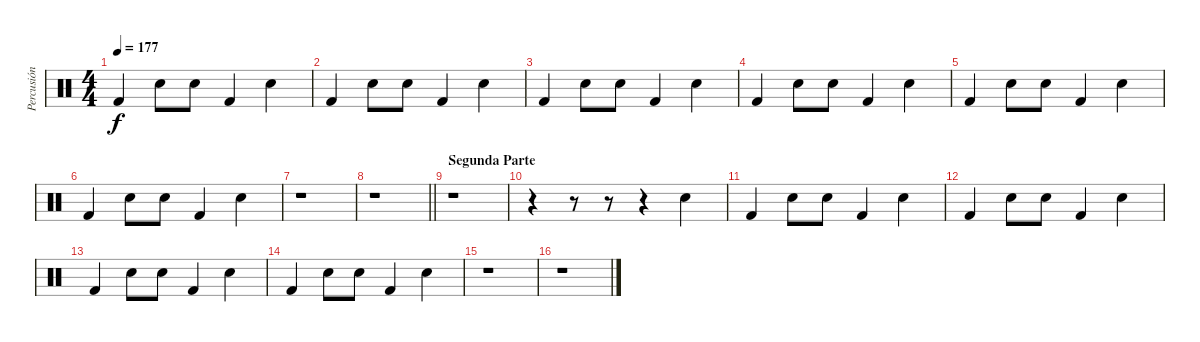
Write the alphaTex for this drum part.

\track ("Percusión" "Percusión") {instrument percussion}
\staff {score}
\articulation defaults
\ts (4 4)
\tempo 177
\clef neutral
\ks c "Kick (hit) 2".4{dy f balance 8} "Electric Snare (hit)".8 "Electric Snare (hit)".8 "Kick (hit) 2".4 "Electric Snare (hit)".4
|
"Kick (hit) 2".4 "Electric Snare (hit)".8 "Electric Snare (hit)".8 "Kick (hit) 2".4 "Electric Snare (hit)".4 |
"Kick (hit) 2".4 "Electric Snare (hit)".8 "Electric Snare (hit)".8 "Kick (hit) 2".4 "Electric Snare (hit)".4 |
"Kick (hit) 2".4 "Electric Snare (hit)".8 "Electric Snare (hit)".8 "Kick (hit) 2".4 "Electric Snare (hit)".4 |
"Kick (hit) 2".4 "Electric Snare (hit)".8 "Electric Snare (hit)".8 "Kick (hit) 2".4 "Electric Snare (hit)".4 |
"Kick (hit) 2".4 "Electric Snare (hit)".8 "Electric Snare (hit)".8 "Kick (hit) 2".4 "Electric Snare (hit)".4 |
r.1 |
\barLineRight lightlight
r.1 |
\section ("" "Segunda Parte")
r.1 |
r.4 r.8 r.8 r.4 "Electric Snare (hit)".4 |
"Kick (hit) 2".4 "Electric Snare (hit)".8 "Electric Snare (hit)".8 "Kick (hit) 2".4 "Electric Snare (hit)".4 |
"Kick (hit) 2".4 "Electric Snare (hit)".8 "Electric Snare (hit)".8 "Kick (hit) 2".4 "Electric Snare (hit)".4 |
"Kick (hit) 2".4 "Electric Snare (hit)".8 "Electric Snare (hit)".8 "Kick (hit) 2".4 "Electric Snare (hit)".4 |
"Kick (hit) 2".4 "Electric Snare (hit)".8 "Electric Snare (hit)".8 "Kick (hit) 2".4 "Electric Snare (hit)".4 |
r.1 |
r.1
